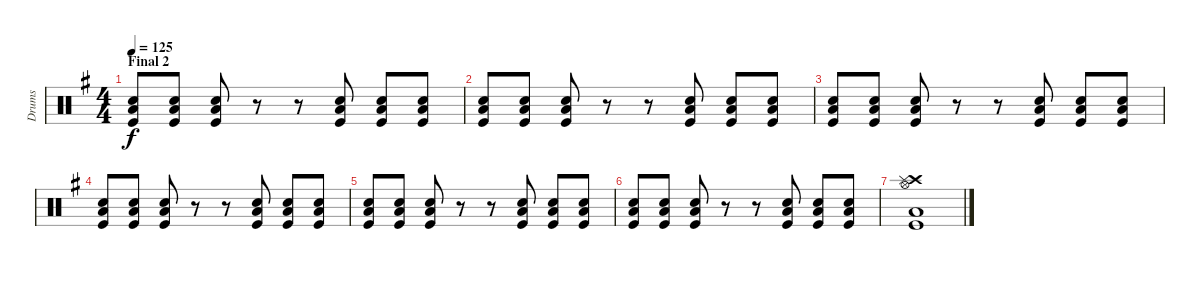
\track ("Drums" "Drums") {instrument percussion}
\staff {score}
\articulation defaults
\ts (4 4)
\section ("" "Final 2")
\tempo 125
\clef neutral
\ks g
("Electric Snare (hit)" "Low Floor Tom (hit)" "Kick (hit)").8{dy f} ("Electric Snare (hit)" "Low Floor Tom (hit)" "Kick (hit)").8 ("Electric Snare (hit)" "Low Floor Tom (hit)" "Kick (hit)").8 r.8 r.8 ("Electric Snare (hit)" "Low Floor Tom (hit)" "Kick (hit)").8 ("Electric Snare (hit)" "Low Floor Tom (hit)" "Kick (hit)").8 ("Electric Snare (hit)" "Low Floor Tom (hit)" "Kick (hit)").8 |
("Electric Snare (hit)" "Low Floor Tom (hit)" "Kick (hit)").8 ("Electric Snare (hit)" "Low Floor Tom (hit)" "Kick (hit)").8 ("Electric Snare (hit)" "Low Floor Tom (hit)" "Kick (hit)").8 r.8 r.8 ("Electric Snare (hit)" "Low Floor Tom (hit)" "Kick (hit)").8 ("Electric Snare (hit)" "Low Floor Tom (hit)" "Kick (hit)").8 ("Electric Snare (hit)" "Low Floor Tom (hit)" "Kick (hit)").8 |
("Electric Snare (hit)" "Low Floor Tom (hit)" "Kick (hit)").8 ("Electric Snare (hit)" "Low Floor Tom (hit)" "Kick (hit)").8 ("Electric Snare (hit)" "Low Floor Tom (hit)" "Kick (hit)").8 r.8 r.8 ("Electric Snare (hit)" "Low Floor Tom (hit)" "Kick (hit)").8 ("Electric Snare (hit)" "Low Floor Tom (hit)" "Kick (hit)").8 ("Electric Snare (hit)" "Low Floor Tom (hit)" "Kick (hit)").8 |
("Electric Snare (hit)" "Low Floor Tom (hit)" "Kick (hit)").8 ("Electric Snare (hit)" "Low Floor Tom (hit)" "Kick (hit)").8 ("Electric Snare (hit)" "Low Floor Tom (hit)" "Kick (hit)").8 r.8 r.8 ("Electric Snare (hit)" "Low Floor Tom (hit)" "Kick (hit)").8 ("Electric Snare (hit)" "Low Floor Tom (hit)" "Kick (hit)").8 ("Electric Snare (hit)" "Low Floor Tom (hit)" "Kick (hit)").8 |
("Electric Snare (hit)" "Low Floor Tom (hit)" "Kick (hit)").8 ("Electric Snare (hit)" "Low Floor Tom (hit)" "Kick (hit)").8 ("Electric Snare (hit)" "Low Floor Tom (hit)" "Kick (hit)").8 r.8 r.8 ("Electric Snare (hit)" "Low Floor Tom (hit)" "Kick (hit)").8 ("Electric Snare (hit)" "Low Floor Tom (hit)" "Kick (hit)").8 ("Electric Snare (hit)" "Low Floor Tom (hit)" "Kick (hit)").8 |
("Electric Snare (hit)" "Low Floor Tom (hit)" "Kick (hit)").8 ("Electric Snare (hit)" "Low Floor Tom (hit)" "Kick (hit)").8 ("Electric Snare (hit)" "Low Floor Tom (hit)" "Kick (hit)").8 r.8 r.8 ("Electric Snare (hit)" "Low Floor Tom (hit)" "Kick (hit)").8 ("Electric Snare (hit)" "Low Floor Tom (hit)" "Kick (hit)").8 ("Electric Snare (hit)" "Low Floor Tom (hit)" "Kick (hit)").8 |
("Crash high (hit)" "Splash (hit)" "Hi-Hat (open)" "Low Floor Tom (hit)" "Kick (hit)").1
